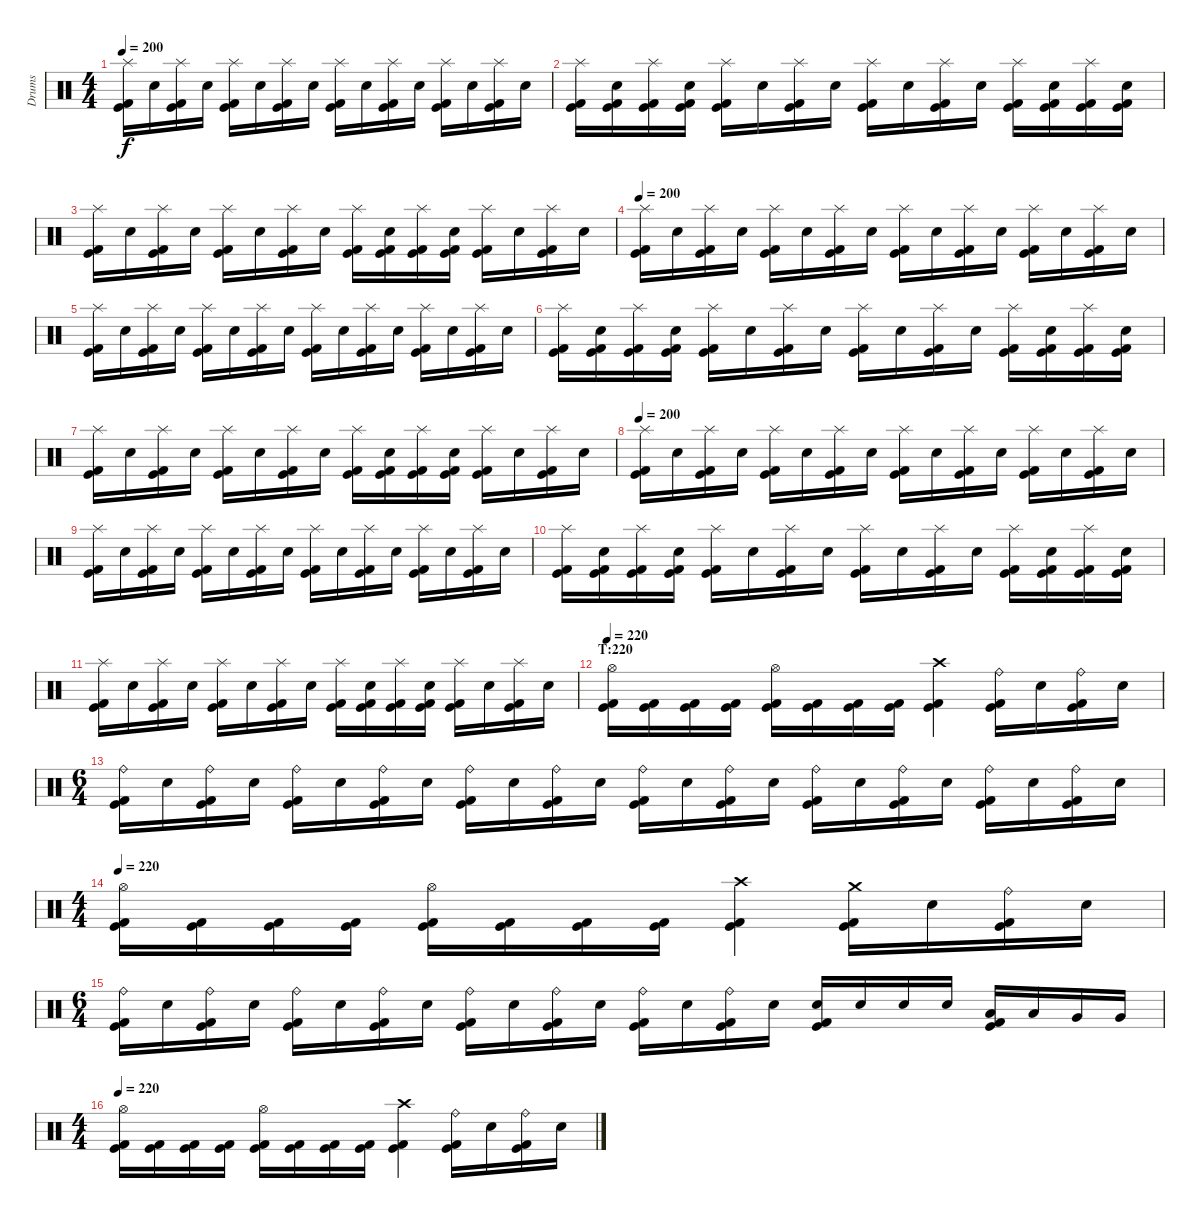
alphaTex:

\track ("Drums" "Drums") {instrument percussion}
\staff {score}
\articulation defaults
\ts (4 4)
\tempo 200
\clef neutral
\ks c
("Splash (hit)" "Kick (hit)" "Kick (hit) 2").16{dy f} "Electric Snare (hit)".16 ("Splash (hit)" "Kick (hit)" "Kick (hit) 2").16 "Electric Snare (hit)".16 ("Splash (hit)" "Kick (hit)" "Kick (hit) 2").16 "Electric Snare (hit)".16 ("Splash (hit)" "Kick (hit)" "Kick (hit) 2").16 "Electric Snare (hit)".16 ("Splash (hit)" "Kick (hit)" "Kick (hit) 2").16 "Electric Snare (hit)".16 ("Splash (hit)" "Kick (hit)" "Kick (hit) 2").16 "Electric Snare (hit)".16 ("Splash (hit)" "Kick (hit)" "Kick (hit) 2").16 "Electric Snare (hit)".16 ("Splash (hit)" "Kick (hit)" "Kick (hit) 2").16 "Electric Snare (hit)".16 |
("Splash (hit)" "Kick (hit)" "Kick (hit) 2").16 ("Electric Snare (hit)" "Kick (hit)" "Kick (hit) 2").16 ("Splash (hit)" "Kick (hit)" "Kick (hit) 2").16 ("Electric Snare (hit)" "Kick (hit)" "Kick (hit) 2").16 ("Splash (hit)" "Kick (hit)" "Kick (hit) 2").16 "Electric Snare (hit)".16 ("Splash (hit)" "Kick (hit)" "Kick (hit) 2").16 "Electric Snare (hit)".16 ("Splash (hit)" "Kick (hit)" "Kick (hit) 2").16 "Electric Snare (hit)".16 ("Splash (hit)" "Kick (hit)" "Kick (hit) 2").16 "Electric Snare (hit)".16 ("Splash (hit)" "Kick (hit)" "Kick (hit) 2").16 ("Electric Snare (hit)" "Kick (hit)" "Kick (hit) 2").16 ("Splash (hit)" "Kick (hit)" "Kick (hit) 2").16 ("Electric Snare (hit)" "Kick (hit)" "Kick (hit) 2").16 |
("Splash (hit)" "Kick (hit)" "Kick (hit) 2").16 "Electric Snare (hit)".16 ("Splash (hit)" "Kick (hit)" "Kick (hit) 2").16 "Electric Snare (hit)".16 ("Splash (hit)" "Kick (hit)" "Kick (hit) 2").16 "Electric Snare (hit)".16 ("Splash (hit)" "Kick (hit)" "Kick (hit) 2").16 "Electric Snare (hit)".16 ("Splash (hit)" "Kick (hit)" "Kick (hit) 2").16 ("Electric Snare (hit)" "Kick (hit)" "Kick (hit) 2").16 ("Splash (hit)" "Kick (hit)" "Kick (hit) 2").16 ("Electric Snare (hit)" "Kick (hit)" "Kick (hit) 2").16 ("Splash (hit)" "Kick (hit)" "Kick (hit) 2").16 "Electric Snare (hit)".16 ("Splash (hit)" "Kick (hit)" "Kick (hit) 2").16 "Electric Snare (hit)".16 |
\tempo 200
("Splash (hit)" "Kick (hit)" "Kick (hit) 2").16 "Electric Snare (hit)".16 ("Splash (hit)" "Kick (hit)" "Kick (hit) 2").16 "Electric Snare (hit)".16 ("Splash (hit)" "Kick (hit)" "Kick (hit) 2").16 "Electric Snare (hit)".16 ("Splash (hit)" "Kick (hit)" "Kick (hit) 2").16 "Electric Snare (hit)".16 ("Splash (hit)" "Kick (hit)" "Kick (hit) 2").16 "Electric Snare (hit)".16 ("Splash (hit)" "Kick (hit)" "Kick (hit) 2").16 "Electric Snare (hit)".16 ("Splash (hit)" "Kick (hit)" "Kick (hit) 2").16 "Electric Snare (hit)".16 ("Splash (hit)" "Kick (hit)" "Kick (hit) 2").16 "Electric Snare (hit)".16 |
("Splash (hit)" "Kick (hit)" "Kick (hit) 2").16 "Electric Snare (hit)".16 ("Splash (hit)" "Kick (hit)" "Kick (hit) 2").16 "Electric Snare (hit)".16 ("Splash (hit)" "Kick (hit)" "Kick (hit) 2").16 "Electric Snare (hit)".16 ("Splash (hit)" "Kick (hit)" "Kick (hit) 2").16 "Electric Snare (hit)".16 ("Splash (hit)" "Kick (hit)" "Kick (hit) 2").16 "Electric Snare (hit)".16 ("Splash (hit)" "Kick (hit)" "Kick (hit) 2").16 "Electric Snare (hit)".16 ("Splash (hit)" "Kick (hit)" "Kick (hit) 2").16 "Electric Snare (hit)".16 ("Splash (hit)" "Kick (hit)" "Kick (hit) 2").16 "Electric Snare (hit)".16 |
("Splash (hit)" "Kick (hit)" "Kick (hit) 2").16 ("Electric Snare (hit)" "Kick (hit)" "Kick (hit) 2").16 ("Splash (hit)" "Kick (hit)" "Kick (hit) 2").16 ("Electric Snare (hit)" "Kick (hit)" "Kick (hit) 2").16 ("Splash (hit)" "Kick (hit)" "Kick (hit) 2").16 "Electric Snare (hit)".16 ("Splash (hit)" "Kick (hit)" "Kick (hit) 2").16 "Electric Snare (hit)".16 ("Splash (hit)" "Kick (hit)" "Kick (hit) 2").16 "Electric Snare (hit)".16 ("Splash (hit)" "Kick (hit)" "Kick (hit) 2").16 "Electric Snare (hit)".16 ("Splash (hit)" "Kick (hit)" "Kick (hit) 2").16 ("Electric Snare (hit)" "Kick (hit)" "Kick (hit) 2").16 ("Splash (hit)" "Kick (hit)" "Kick (hit) 2").16 ("Electric Snare (hit)" "Kick (hit)" "Kick (hit) 2").16 |
("Splash (hit)" "Kick (hit)" "Kick (hit) 2").16 "Electric Snare (hit)".16 ("Splash (hit)" "Kick (hit)" "Kick (hit) 2").16 "Electric Snare (hit)".16 ("Splash (hit)" "Kick (hit)" "Kick (hit) 2").16 "Electric Snare (hit)".16 ("Splash (hit)" "Kick (hit)" "Kick (hit) 2").16 "Electric Snare (hit)".16 ("Splash (hit)" "Kick (hit)" "Kick (hit) 2").16 ("Electric Snare (hit)" "Kick (hit)" "Kick (hit) 2").16 ("Splash (hit)" "Kick (hit)" "Kick (hit) 2").16 ("Electric Snare (hit)" "Kick (hit)" "Kick (hit) 2").16 ("Splash (hit)" "Kick (hit)" "Kick (hit) 2").16 "Electric Snare (hit)".16 ("Splash (hit)" "Kick (hit)" "Kick (hit) 2").16 "Electric Snare (hit)".16 |
\tempo 200
("Splash (hit)" "Kick (hit)" "Kick (hit) 2").16 "Electric Snare (hit)".16 ("Splash (hit)" "Kick (hit)" "Kick (hit) 2").16 "Electric Snare (hit)".16 ("Splash (hit)" "Kick (hit)" "Kick (hit) 2").16 "Electric Snare (hit)".16 ("Splash (hit)" "Kick (hit)" "Kick (hit) 2").16 "Electric Snare (hit)".16 ("Splash (hit)" "Kick (hit)" "Kick (hit) 2").16 "Electric Snare (hit)".16 ("Splash (hit)" "Kick (hit)" "Kick (hit) 2").16 "Electric Snare (hit)".16 ("Splash (hit)" "Kick (hit)" "Kick (hit) 2").16 "Electric Snare (hit)".16 ("Splash (hit)" "Kick (hit)" "Kick (hit) 2").16 "Electric Snare (hit)".16 |
("Splash (hit)" "Kick (hit)" "Kick (hit) 2").16 "Electric Snare (hit)".16 ("Splash (hit)" "Kick (hit)" "Kick (hit) 2").16 "Electric Snare (hit)".16 ("Splash (hit)" "Kick (hit)" "Kick (hit) 2").16 "Electric Snare (hit)".16 ("Splash (hit)" "Kick (hit)" "Kick (hit) 2").16 "Electric Snare (hit)".16 ("Splash (hit)" "Kick (hit)" "Kick (hit) 2").16 "Electric Snare (hit)".16 ("Splash (hit)" "Kick (hit)" "Kick (hit) 2").16 "Electric Snare (hit)".16 ("Splash (hit)" "Kick (hit)" "Kick (hit) 2").16 "Electric Snare (hit)".16 ("Splash (hit)" "Kick (hit)" "Kick (hit) 2").16 "Electric Snare (hit)".16 |
("Splash (hit)" "Kick (hit)" "Kick (hit) 2").16 ("Electric Snare (hit)" "Kick (hit)" "Kick (hit) 2").16 ("Splash (hit)" "Kick (hit)" "Kick (hit) 2").16 ("Electric Snare (hit)" "Kick (hit)" "Kick (hit) 2").16 ("Splash (hit)" "Kick (hit)" "Kick (hit) 2").16 "Electric Snare (hit)".16 ("Splash (hit)" "Kick (hit)" "Kick (hit) 2").16 "Electric Snare (hit)".16 ("Splash (hit)" "Kick (hit)" "Kick (hit) 2").16 "Electric Snare (hit)".16 ("Splash (hit)" "Kick (hit)" "Kick (hit) 2").16 "Electric Snare (hit)".16 ("Splash (hit)" "Kick (hit)" "Kick (hit) 2").16 ("Electric Snare (hit)" "Kick (hit)" "Kick (hit) 2").16 ("Splash (hit)" "Kick (hit)" "Kick (hit) 2").16 ("Electric Snare (hit)" "Kick (hit)" "Kick (hit) 2").16 |
("Splash (hit)" "Kick (hit)" "Kick (hit) 2").16 "Electric Snare (hit)".16 ("Splash (hit)" "Kick (hit)" "Kick (hit) 2").16 "Electric Snare (hit)".16 ("Splash (hit)" "Kick (hit)" "Kick (hit) 2").16 "Electric Snare (hit)".16 ("Splash (hit)" "Kick (hit)" "Kick (hit) 2").16 "Electric Snare (hit)".16 ("Splash (hit)" "Kick (hit)" "Kick (hit) 2").16 ("Electric Snare (hit)" "Kick (hit)" "Kick (hit) 2").16 ("Splash (hit)" "Kick (hit)" "Kick (hit) 2").16 ("Electric Snare (hit)" "Kick (hit)" "Kick (hit) 2").16 ("Splash (hit)" "Kick (hit)" "Kick (hit) 2").16 "Electric Snare (hit)".16 ("Splash (hit)" "Kick (hit)" "Kick (hit) 2").16 "Electric Snare (hit)".16 |
\section ("" "T:220")
\tempo 220
("Hi-Hat (open)" "Kick (hit)" "Kick (hit) 2").16 ("Kick (hit)" "Kick (hit) 2").16 ("Kick (hit)" "Kick (hit) 2").16 ("Kick (hit)" "Kick (hit) 2").16 ("Hi-Hat (open)" "Kick (hit)" "Kick (hit) 2").16 ("Kick (hit)" "Kick (hit) 2").16 ("Kick (hit)" "Kick (hit) 2").16 ("Kick (hit)" "Kick (hit) 2").16 ("Crash high (hit)" "Kick (hit)" "Kick (hit) 2").4 ("Ride (bell)" "Kick (hit)" "Kick (hit) 2").16 "Electric Snare (hit)".16 ("Ride (bell)" "Kick (hit)" "Kick (hit) 2").16 "Electric Snare (hit)".16 |
\ts (6 4)
("Ride (bell)" "Kick (hit)" "Kick (hit) 2").16 "Electric Snare (hit)".16 ("Ride (bell)" "Kick (hit)" "Kick (hit) 2").16 "Electric Snare (hit)".16 ("Ride (bell)" "Kick (hit)" "Kick (hit) 2").16 "Electric Snare (hit)".16 ("Ride (bell)" "Kick (hit)" "Kick (hit) 2").16 "Electric Snare (hit)".16 ("Ride (bell)" "Kick (hit)" "Kick (hit) 2").16 "Electric Snare (hit)".16 ("Ride (bell)" "Kick (hit)" "Kick (hit) 2").16 "Electric Snare (hit)".16 ("Ride (bell)" "Kick (hit)" "Kick (hit) 2").16 "Electric Snare (hit)".16 ("Ride (bell)" "Kick (hit)" "Kick (hit) 2").16 "Electric Snare (hit)".16 ("Ride (bell)" "Kick (hit)" "Kick (hit) 2").16 "Electric Snare (hit)".16 ("Ride (bell)" "Kick (hit)" "Kick (hit) 2").16 "Electric Snare (hit)".16 ("Ride (bell)" "Kick (hit)" "Kick (hit) 2").16 "Electric Snare (hit)".16 ("Ride (bell)" "Kick (hit)" "Kick (hit) 2").16 "Electric Snare (hit)".16 |
\ts (4 4)
\tempo 220
("Hi-Hat (open)" "Kick (hit)" "Kick (hit) 2").16 ("Kick (hit)" "Kick (hit) 2").16 ("Kick (hit)" "Kick (hit) 2").16 ("Kick (hit)" "Kick (hit) 2").16 ("Hi-Hat (open)" "Kick (hit)" "Kick (hit) 2").16 ("Kick (hit)" "Kick (hit) 2").16 ("Kick (hit)" "Kick (hit) 2").16 ("Kick (hit)" "Kick (hit) 2").16 ("Crash high (hit)" "Kick (hit)" "Kick (hit) 2").4 ("Crash medium (hit)" "Kick (hit)" "Kick (hit) 2").16 "Electric Snare (hit)".16 ("Ride (bell)" "Kick (hit)" "Kick (hit) 2").16 "Electric Snare (hit)".16 |
\ts (6 4)
("Ride (bell)" "Kick (hit)" "Kick (hit) 2").16 "Electric Snare (hit)".16 ("Ride (bell)" "Kick (hit)" "Kick (hit) 2").16 "Electric Snare (hit)".16 ("Ride (bell)" "Kick (hit)" "Kick (hit) 2").16 "Electric Snare (hit)".16 ("Ride (bell)" "Kick (hit)" "Kick (hit) 2").16 "Electric Snare (hit)".16 ("Ride (bell)" "Kick (hit)" "Kick (hit) 2").16 "Electric Snare (hit)".16 ("Ride (bell)" "Kick (hit)" "Kick (hit) 2").16 "Electric Snare (hit)".16 ("Ride (bell)" "Kick (hit)" "Kick (hit) 2").16 "Electric Snare (hit)".16 ("Ride (bell)" "Kick (hit)" "Kick (hit) 2").16 "Electric Snare (hit)".16 ("Electric Snare (hit)" "Kick (hit)" "Kick (hit) 2").16 "Electric Snare (hit)".16 "Electric Snare (hit)".16 "Electric Snare (hit)".16 ("Low Tom (hit)" "Kick (hit)" "Kick (hit) 2").16 "Low Tom (hit)".16 "Very Low Tom (hit)".16 "Very Low Tom (hit)".16 |
\ts (4 4)
\tempo 220
("Hi-Hat (open)" "Kick (hit)" "Kick (hit) 2").16 ("Kick (hit)" "Kick (hit) 2").16 ("Kick (hit)" "Kick (hit) 2").16 ("Kick (hit)" "Kick (hit) 2").16 ("Hi-Hat (open)" "Kick (hit)" "Kick (hit) 2").16 ("Kick (hit)" "Kick (hit) 2").16 ("Kick (hit)" "Kick (hit) 2").16 ("Kick (hit)" "Kick (hit) 2").16 ("Crash high (hit)" "Kick (hit)" "Kick (hit) 2").4 ("Ride (bell)" "Kick (hit)" "Kick (hit) 2").16 "Electric Snare (hit)".16 ("Ride (bell)" "Kick (hit)" "Kick (hit) 2").16 "Electric Snare (hit)".16
